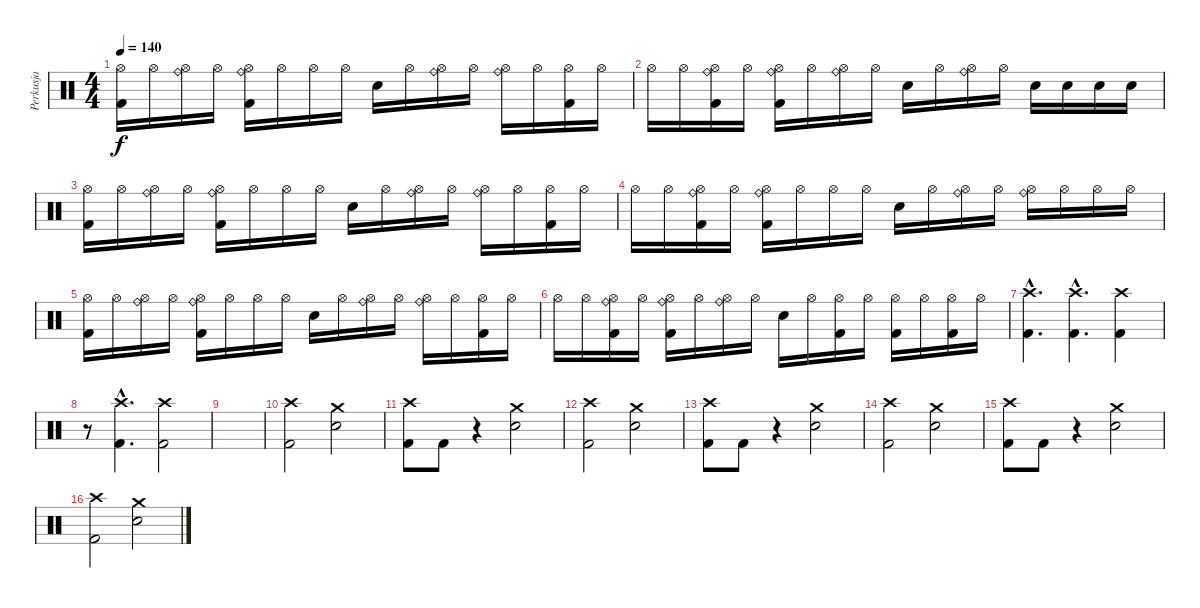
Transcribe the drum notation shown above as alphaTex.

\track ("Perkusja" "Perkusja") {instrument percussion}
\staff {score}
\articulation defaults
\ts (4 4)
\tempo 140
\clef neutral
\ks c
("Hi-Hat (open)" "Kick (hit) 2").16{txt " " dy f} "Hi-Hat (open)".16 ("Hi-Hat (open)" "Ride (bell)").16 "Hi-Hat (open)".16 ("Hi-Hat (open)" "Ride (bell)" "Kick (hit) 2").16 "Hi-Hat (open)".16 "Hi-Hat (open)".16 "Hi-Hat (open)".16 "Electric Snare (hit)".16 "Hi-Hat (open)".16 ("Hi-Hat (open)" "Ride (bell)").16 "Hi-Hat (open)".16 ("Hi-Hat (open)" "Ride (bell)").16 "Hi-Hat (open)".16 ("Hi-Hat (open)" "Kick (hit) 2").16 "Hi-Hat (open)".16 |
"Hi-Hat (open)".16 "Hi-Hat (open)".16 ("Hi-Hat (open)" "Ride (bell)" "Kick (hit) 2").16 "Hi-Hat (open)".16 ("Hi-Hat (open)" "Ride (bell)" "Kick (hit) 2").16 "Hi-Hat (open)".16 ("Hi-Hat (open)" "Ride (bell)").16 "Hi-Hat (open)".16 "Electric Snare (hit)".16 "Hi-Hat (open)".16 ("Hi-Hat (open)" "Ride (bell)").16 "Hi-Hat (open)".16 "Electric Snare (hit)".16 "Electric Snare (hit)".16 "Electric Snare (hit)".16 "Electric Snare (hit)".16 |
("Hi-Hat (open)" "Kick (hit) 2").16{txt " "} "Hi-Hat (open)".16 ("Hi-Hat (open)" "Ride (bell)").16 "Hi-Hat (open)".16 ("Hi-Hat (open)" "Ride (bell)" "Kick (hit) 2").16 "Hi-Hat (open)".16 "Hi-Hat (open)".16 "Hi-Hat (open)".16 "Electric Snare (hit)".16 "Hi-Hat (open)".16 ("Hi-Hat (open)" "Ride (bell)").16 "Hi-Hat (open)".16 ("Hi-Hat (open)" "Ride (bell)").16 "Hi-Hat (open)".16 ("Hi-Hat (open)" "Kick (hit) 2").16 "Hi-Hat (open)".16 |
"Hi-Hat (open)".16 "Hi-Hat (open)".16 ("Hi-Hat (open)" "Ride (bell)" "Kick (hit) 2").16 "Hi-Hat (open)".16 ("Hi-Hat (open)" "Ride (bell)" "Kick (hit) 2").16 "Hi-Hat (open)".16 "Hi-Hat (open)".16 "Hi-Hat (open)".16 "Electric Snare (hit)".16 "Hi-Hat (open)".16 ("Hi-Hat (open)" "Ride (bell)").16 "Hi-Hat (open)".16 ("Hi-Hat (open)" "Ride (bell)").16 "Hi-Hat (open)".16 "Hi-Hat (open)".16 "Hi-Hat (open)".16 |
("Hi-Hat (open)" "Kick (hit) 2").16{txt " "} "Hi-Hat (open)".16 ("Hi-Hat (open)" "Ride (bell)").16 "Hi-Hat (open)".16 ("Hi-Hat (open)" "Ride (bell)" "Kick (hit) 2").16 "Hi-Hat (open)".16 "Hi-Hat (open)".16 "Hi-Hat (open)".16 "Electric Snare (hit)".16 "Hi-Hat (open)".16 ("Hi-Hat (open)" "Ride (bell)").16 "Hi-Hat (open)".16 ("Hi-Hat (open)" "Ride (bell)").16 "Hi-Hat (open)".16 ("Hi-Hat (open)" "Kick (hit) 2").16 "Hi-Hat (open)".16 |
"Hi-Hat (open)".16 "Hi-Hat (open)".16 ("Hi-Hat (open)" "Ride (bell)" "Kick (hit) 2").16 "Hi-Hat (open)".16 ("Hi-Hat (open)" "Ride (bell)" "Kick (hit) 2").16 "Hi-Hat (open)".16 ("Hi-Hat (open)" "Ride (bell)").16 "Hi-Hat (open)".16 "Electric Snare (hit)".16 "Hi-Hat (open)".16 ("Hi-Hat (open)" "Kick (hit) 2").16 "Hi-Hat (open)".16 ("Hi-Hat (open)" "Kick (hit) 2").16 "Hi-Hat (open)".16 ("Hi-Hat (open)" "Kick (hit) 2").16 "Hi-Hat (open)".16 |
("Crash high (hit)"{hac} "Kick (hit) 2"{hac}).4{d} ("Crash high (hit)"{hac} "Kick (hit) 2"{hac}).4{d} ("Crash high (hit)" "Kick (hit) 2").4 |
r.8 ("Crash high (hit)"{hac} "Kick (hit) 2"{hac}).4{d} ("Crash high (hit)" "Kick (hit) 2").2 |
|
("Crash high (hit)" "Kick (hit) 2").2 ("Crash medium (hit)" "Electric Snare (hit)").2 |
("Crash high (hit)" "Kick (hit) 2").8 "Kick (hit) 2".8 r.4 ("Crash medium (hit)" "Electric Snare (hit)").2 |
("Crash high (hit)" "Kick (hit) 2").2 ("Crash medium (hit)" "Electric Snare (hit)").2 |
("Crash high (hit)" "Kick (hit) 2").8 "Kick (hit) 2".8 r.4 ("Crash medium (hit)" "Electric Snare (hit)").2 |
("Crash high (hit)" "Kick (hit) 2").2 ("Crash medium (hit)" "Electric Snare (hit)").2 |
("Crash high (hit)" "Kick (hit) 2").8 "Kick (hit) 2".8 r.4 ("Crash medium (hit)" "Electric Snare (hit)").2 |
("Crash high (hit)" "Kick (hit) 2").2 ("Crash medium (hit)" "Electric Snare (hit)").2
